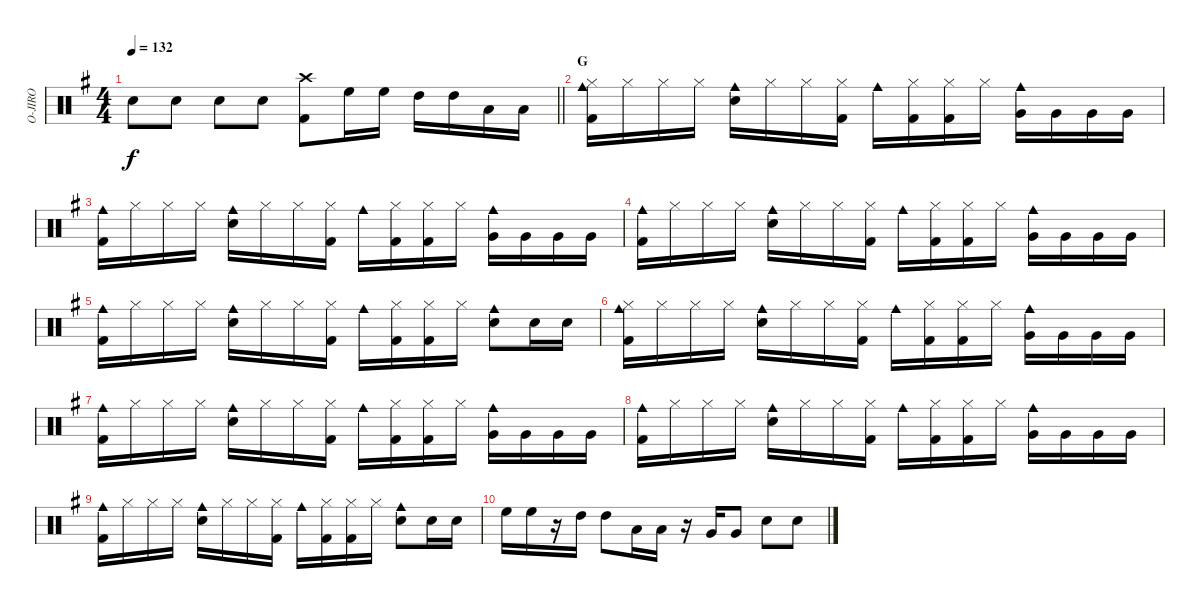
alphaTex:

\track ("O-JIRO" "O-JIRO") {instrument percussion}
\staff {score}
\articulation defaults
\ts (4 4)
\tempo 132
\clef neutral
\barLineRight lightlight
\ks g "Snare (hit) 2".8{dy f} "Snare (hit) 2".8 "Snare (hit) 2".8 "Snare (hit) 2".8
("Crash high (hit)" "Kick (hit) 2").8 "High Floor Tom (hit)".16 "High Floor Tom (hit)".16 "High Tom (hit)".16 "High Tom (hit)".16 "Low Tom (hit)".16 "Low Tom (hit)".16 |
\section ("" "G")
("Hi-Hat (closed)" "Cowbell medium (hit)" "Kick (hit) 2").16 "Hi-Hat (closed)".16 "Hi-Hat (closed)".16 "Hi-Hat (closed)".16 ("Cowbell medium (hit)" "Snare (hit) 2").16 "Hi-Hat (closed)".16 "Hi-Hat (closed)".16 ("Hi-Hat (closed)" "Kick (hit) 2").16 "Cowbell medium (hit)".16 ("Hi-Hat (closed)" "Kick (hit) 2").16 ("Hi-Hat (closed)" "Kick (hit) 2").16 "Hi-Hat (closed)".16 ("Cowbell medium (hit)" "Very Low Tom (hit)").16 "Very Low Tom (hit)".16 "Very Low Tom (hit)".16 "Very Low Tom (hit)".16 |
("Cowbell medium (hit)" "Kick (hit) 2").16 "Hi-Hat (closed)".16 "Hi-Hat (closed)".16 "Hi-Hat (closed)".16 ("Cowbell medium (hit)" "Snare (hit) 2").16 "Hi-Hat (closed)".16 "Hi-Hat (closed)".16 ("Hi-Hat (closed)" "Kick (hit) 2").16 "Cowbell medium (hit)".16 ("Hi-Hat (closed)" "Kick (hit) 2").16 ("Hi-Hat (closed)" "Kick (hit) 2").16 "Hi-Hat (closed)".16 ("Cowbell medium (hit)" "Very Low Tom (hit)").16 "Very Low Tom (hit)".16 "Very Low Tom (hit)".16 "Very Low Tom (hit)".16 |
("Cowbell medium (hit)" "Kick (hit) 2").16 "Hi-Hat (closed)".16 "Hi-Hat (closed)".16 "Hi-Hat (closed)".16 ("Cowbell medium (hit)" "Snare (hit) 2").16 "Hi-Hat (closed)".16 "Hi-Hat (closed)".16 ("Hi-Hat (closed)" "Kick (hit) 2").16 "Cowbell medium (hit)".16 ("Hi-Hat (closed)" "Kick (hit) 2").16 ("Hi-Hat (closed)" "Kick (hit) 2").16 "Hi-Hat (closed)".16 ("Cowbell medium (hit)" "Very Low Tom (hit)").16 "Very Low Tom (hit)".16 "Very Low Tom (hit)".16 "Very Low Tom (hit)".16 |
("Cowbell medium (hit)" "Kick (hit) 2").16 "Hi-Hat (closed)".16 "Hi-Hat (closed)".16 "Hi-Hat (closed)".16 ("Cowbell medium (hit)" "Snare (hit) 2").16 "Hi-Hat (closed)".16 "Hi-Hat (closed)".16 ("Hi-Hat (closed)" "Kick (hit) 2").16 "Cowbell medium (hit)".16 ("Hi-Hat (closed)" "Kick (hit) 2").16 ("Hi-Hat (closed)" "Kick (hit) 2").16 "Hi-Hat (closed)".16 ("Cowbell medium (hit)" "Snare (hit) 2").8 "Snare (hit) 2".16 "Snare (hit) 2".16 |
("Hi-Hat (closed)" "Cowbell medium (hit)" "Kick (hit) 2").16 "Hi-Hat (closed)".16 "Hi-Hat (closed)".16 "Hi-Hat (closed)".16 ("Cowbell medium (hit)" "Snare (hit) 2").16 "Hi-Hat (closed)".16 "Hi-Hat (closed)".16 ("Hi-Hat (closed)" "Kick (hit) 2").16 "Cowbell medium (hit)".16 ("Hi-Hat (closed)" "Kick (hit) 2").16 ("Hi-Hat (closed)" "Kick (hit) 2").16 "Hi-Hat (closed)".16 ("Cowbell medium (hit)" "Very Low Tom (hit)").16 "Very Low Tom (hit)".16 "Very Low Tom (hit)".16 "Very Low Tom (hit)".16 |
("Cowbell medium (hit)" "Kick (hit) 2").16 "Hi-Hat (closed)".16 "Hi-Hat (closed)".16 "Hi-Hat (closed)".16 ("Cowbell medium (hit)" "Snare (hit) 2").16 "Hi-Hat (closed)".16 "Hi-Hat (closed)".16 ("Hi-Hat (closed)" "Kick (hit) 2").16 "Cowbell medium (hit)".16 ("Hi-Hat (closed)" "Kick (hit) 2").16 ("Hi-Hat (closed)" "Kick (hit) 2").16 "Hi-Hat (closed)".16 ("Cowbell medium (hit)" "Very Low Tom (hit)").16 "Very Low Tom (hit)".16 "Very Low Tom (hit)".16 "Very Low Tom (hit)".16 |
("Cowbell medium (hit)" "Kick (hit) 2").16 "Hi-Hat (closed)".16 "Hi-Hat (closed)".16 "Hi-Hat (closed)".16 ("Cowbell medium (hit)" "Snare (hit) 2").16 "Hi-Hat (closed)".16 "Hi-Hat (closed)".16 ("Hi-Hat (closed)" "Kick (hit) 2").16 "Cowbell medium (hit)".16 ("Hi-Hat (closed)" "Kick (hit) 2").16 ("Hi-Hat (closed)" "Kick (hit) 2").16 "Hi-Hat (closed)".16 ("Cowbell medium (hit)" "Very Low Tom (hit)").16 "Very Low Tom (hit)".16 "Very Low Tom (hit)".16 "Very Low Tom (hit)".16 |
("Cowbell medium (hit)" "Kick (hit) 2").16 "Hi-Hat (closed)".16 "Hi-Hat (closed)".16 "Hi-Hat (closed)".16 ("Cowbell medium (hit)" "Snare (hit) 2").16 "Hi-Hat (closed)".16 "Hi-Hat (closed)".16 ("Hi-Hat (closed)" "Kick (hit) 2").16 "Cowbell medium (hit)".16 ("Hi-Hat (closed)" "Kick (hit) 2").16 ("Hi-Hat (closed)" "Kick (hit) 2").16 "Hi-Hat (closed)".16 ("Cowbell medium (hit)" "Snare (hit) 2").8 "Snare (hit) 2".16 "Snare (hit) 2".16 |
"High Floor Tom (hit)".16 "High Floor Tom (hit)".16 r.16 "High Tom (hit)".16 "High Tom (hit)".8 "Low Tom (hit)".16 "Low Tom (hit)".16 r.16 "Very Low Tom (hit)".16 "Very Low Tom (hit)".8 "Snare (hit) 2".8 "Snare (hit) 2".8
